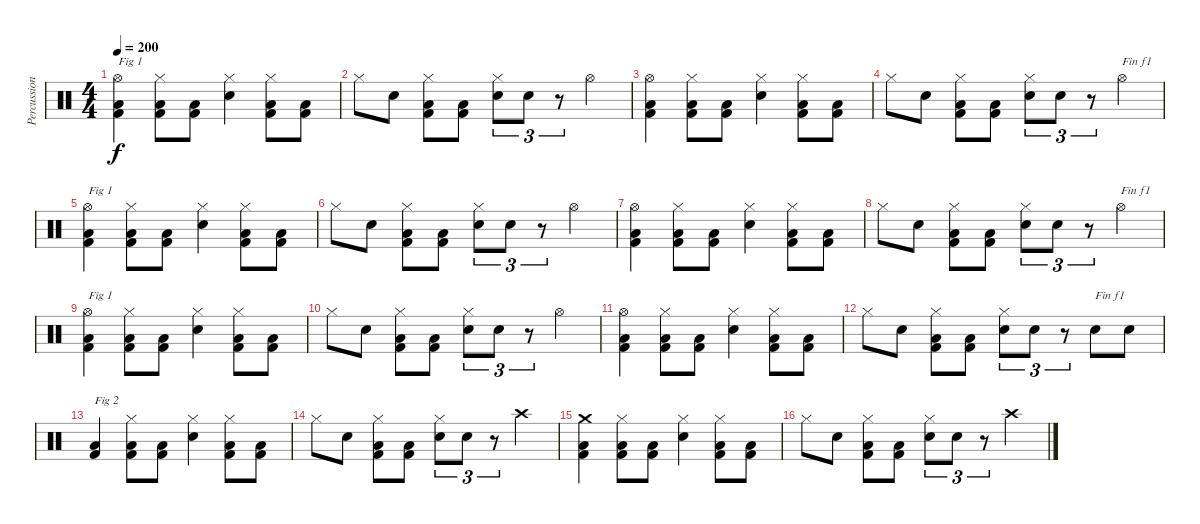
\track ("Percussions" "Percussion") {instrument percussion}
\staff {score}
\articulation defaults
\ts (4 4)
\tempo 200
\clef neutral
\ks c
("Kick (hit) 2" "Low Floor Tom (hit)" "Hi-Hat (open)").4{txt "Fig 1" dy f} ("Kick (hit) 2" "Low Floor Tom (hit)" "Hi-Hat (closed)").8 ("Kick (hit) 2" "Low Floor Tom (hit)").8 ("Snare (hit) 2" "Hi-Hat (closed)").4 ("Kick (hit) 2" "Low Floor Tom (hit)" "Hi-Hat (closed)").8 ("Kick (hit) 2" "Low Floor Tom (hit)").8 |
"Hi-Hat (closed)".8 "Snare (hit) 2".8 ("Kick (hit) 2" "Low Floor Tom (hit)" "Hi-Hat (closed)").8 ("Kick (hit) 2" "Low Floor Tom (hit)").8 ("Snare (hit) 2" "Hi-Hat (closed)").8{tu (3 2)} "Snare (hit) 2".8{tu (3 2)} r.8{tu (3 2)} "Hi-Hat (open)".4 |
("Kick (hit) 2" "Low Floor Tom (hit)" "Hi-Hat (open)").4 ("Kick (hit) 2" "Low Floor Tom (hit)" "Hi-Hat (closed)").8 ("Kick (hit) 2" "Low Floor Tom (hit)").8 ("Snare (hit) 2" "Hi-Hat (closed)").4 ("Kick (hit) 2" "Low Floor Tom (hit)" "Hi-Hat (closed)").8 ("Kick (hit) 2" "Low Floor Tom (hit)").8 |
"Hi-Hat (closed)".8 "Snare (hit) 2".8 ("Kick (hit) 2" "Low Floor Tom (hit)" "Hi-Hat (closed)").8 ("Kick (hit) 2" "Low Floor Tom (hit)").8 ("Snare (hit) 2" "Hi-Hat (closed)").8{tu (3 2)} "Snare (hit) 2".8{tu (3 2)} r.8{tu (3 2)} "Hi-Hat (open)".4{txt "Fin f1"} |
("Kick (hit) 2" "Low Floor Tom (hit)" "Hi-Hat (open)").4{txt "Fig 1"} ("Kick (hit) 2" "Low Floor Tom (hit)" "Hi-Hat (closed)").8 ("Kick (hit) 2" "Low Floor Tom (hit)").8 ("Snare (hit) 2" "Hi-Hat (closed)").4 ("Kick (hit) 2" "Low Floor Tom (hit)" "Hi-Hat (closed)").8 ("Kick (hit) 2" "Low Floor Tom (hit)").8 |
"Hi-Hat (closed)".8 "Snare (hit) 2".8 ("Kick (hit) 2" "Low Floor Tom (hit)" "Hi-Hat (closed)").8 ("Kick (hit) 2" "Low Floor Tom (hit)").8 ("Snare (hit) 2" "Hi-Hat (closed)").8{tu (3 2)} "Snare (hit) 2".8{tu (3 2)} r.8{tu (3 2)} "Hi-Hat (open)".4 |
("Kick (hit) 2" "Low Floor Tom (hit)" "Hi-Hat (open)").4 ("Kick (hit) 2" "Low Floor Tom (hit)" "Hi-Hat (closed)").8 ("Kick (hit) 2" "Low Floor Tom (hit)").8 ("Snare (hit) 2" "Hi-Hat (closed)").4 ("Kick (hit) 2" "Low Floor Tom (hit)" "Hi-Hat (closed)").8 ("Kick (hit) 2" "Low Floor Tom (hit)").8 |
"Hi-Hat (closed)".8 "Snare (hit) 2".8 ("Kick (hit) 2" "Low Floor Tom (hit)" "Hi-Hat (closed)").8 ("Kick (hit) 2" "Low Floor Tom (hit)").8 ("Snare (hit) 2" "Hi-Hat (closed)").8{tu (3 2)} "Snare (hit) 2".8{tu (3 2)} r.8{tu (3 2)} "Hi-Hat (open)".4{txt "Fin f1"} |
("Kick (hit) 2" "Low Floor Tom (hit)" "Hi-Hat (open)").4{txt "Fig 1"} ("Kick (hit) 2" "Low Floor Tom (hit)" "Hi-Hat (closed)").8 ("Kick (hit) 2" "Low Floor Tom (hit)").8 ("Snare (hit) 2" "Hi-Hat (closed)").4 ("Kick (hit) 2" "Low Floor Tom (hit)" "Hi-Hat (closed)").8 ("Kick (hit) 2" "Low Floor Tom (hit)").8 |
"Hi-Hat (closed)".8 "Snare (hit) 2".8 ("Kick (hit) 2" "Low Floor Tom (hit)" "Hi-Hat (closed)").8 ("Kick (hit) 2" "Low Floor Tom (hit)").8 ("Snare (hit) 2" "Hi-Hat (closed)").8{tu (3 2)} "Snare (hit) 2".8{tu (3 2)} r.8{tu (3 2)} "Hi-Hat (open)".4 |
("Kick (hit) 2" "Low Floor Tom (hit)" "Hi-Hat (open)").4 ("Kick (hit) 2" "Low Floor Tom (hit)" "Hi-Hat (closed)").8 ("Kick (hit) 2" "Low Floor Tom (hit)").8 ("Snare (hit) 2" "Hi-Hat (closed)").4 ("Kick (hit) 2" "Low Floor Tom (hit)" "Hi-Hat (closed)").8 ("Kick (hit) 2" "Low Floor Tom (hit)").8 |
"Hi-Hat (closed)".8 "Snare (hit) 2".8 ("Kick (hit) 2" "Low Floor Tom (hit)" "Hi-Hat (closed)").8 ("Kick (hit) 2" "Low Floor Tom (hit)").8 ("Snare (hit) 2" "Hi-Hat (closed)").8{tu (3 2)} "Snare (hit) 2".8{tu (3 2)} r.8{tu (3 2)} "Snare (hit) 2".8{txt "Fin f1"} "Snare (hit) 2".8 |
("Kick (hit) 2" "Low Floor Tom (hit)").4{txt "Fig 2"} ("Kick (hit) 2" "Low Floor Tom (hit)" "Hi-Hat (closed)").8 ("Kick (hit) 2" "Low Floor Tom (hit)").8 ("Snare (hit) 2" "Hi-Hat (closed)").4 ("Kick (hit) 2" "Low Floor Tom (hit)" "Hi-Hat (closed)").8 ("Kick (hit) 2" "Low Floor Tom (hit)").8 |
"Hi-Hat (closed)".8 "Snare (hit) 2".8 ("Kick (hit) 2" "Low Floor Tom (hit)" "Hi-Hat (closed)").8 ("Kick (hit) 2" "Low Floor Tom (hit)").8 ("Snare (hit) 2" "Hi-Hat (closed)").8{tu (3 2)} "Snare (hit) 2".8{tu (3 2)} r.8{tu (3 2)} "Crash high (hit)".4 |
("Kick (hit) 2" "Low Floor Tom (hit)" "Crash medium (hit)").4 ("Kick (hit) 2" "Low Floor Tom (hit)" "Hi-Hat (closed)").8 ("Kick (hit) 2" "Low Floor Tom (hit)").8 ("Snare (hit) 2" "Hi-Hat (closed)").4 ("Kick (hit) 2" "Low Floor Tom (hit)" "Hi-Hat (closed)").8 ("Kick (hit) 2" "Low Floor Tom (hit)").8 |
"Hi-Hat (closed)".8 "Snare (hit) 2".8 ("Kick (hit) 2" "Low Floor Tom (hit)" "Hi-Hat (closed)").8 ("Kick (hit) 2" "Low Floor Tom (hit)").8 ("Snare (hit) 2" "Hi-Hat (closed)").8{tu (3 2)} "Snare (hit) 2".8{tu (3 2)} r.8{tu (3 2)} "Crash high (hit)".4
